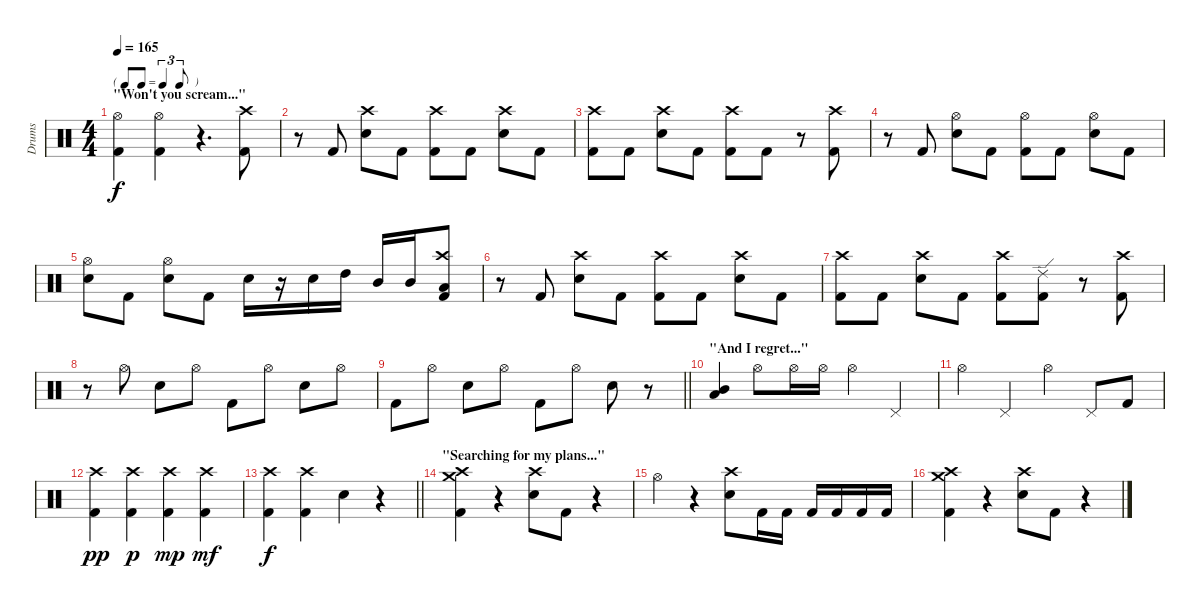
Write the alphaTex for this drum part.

\track ("Drums" "Drums") {instrument percussion}
\staff {score}
\articulation defaults
\ts (4 4)
\tf triplet8th
\section ("" "\"Won't you scream...\"")
\tempo 165
\clef neutral
\ks c
("Hi-Hat (open)" "Kick (hit) 2").4{dy f} ("Hi-Hat (open)" "Kick (hit) 2").4 r.4{d} ("Crash high (hit)" "Kick (hit) 2").8 |
r.8 "Kick (hit) 2".8 ("Crash high (hit)" "Electric Snare (hit)").8 "Kick (hit) 2".8 ("Crash high (hit)" "Kick (hit) 2").8 "Kick (hit) 2".8 ("Crash high (hit)" "Electric Snare (hit)").8 "Kick (hit) 2".8 |
("Crash high (hit)" "Kick (hit) 2").8 "Kick (hit) 2".8 ("Crash high (hit)" "Electric Snare (hit)").8 "Kick (hit) 2".8 ("Crash high (hit)" "Kick (hit) 2").8 "Kick (hit) 2".8 r.8 ("Crash high (hit)" "Kick (hit) 2").8 |
r.8 "Kick (hit) 2".8 ("Hi-Hat (open)" "Electric Snare (hit)").8 "Kick (hit) 2".8 ("Hi-Hat (open)" "Kick (hit) 2").8 "Kick (hit) 2".8 ("Hi-Hat (open)" "Electric Snare (hit)").8 "Kick (hit) 2".8 |
("Hi-Hat (open)" "Electric Snare (hit)").8 "Kick (hit) 2".8 ("Hi-Hat (open)" "Electric Snare (hit)").8 "Kick (hit) 2".8 "Electric Snare (hit)".16 r.16 "Electric Snare (hit)".16 "High Tom (hit)".16 "Mid Tom (hit)".16 "Mid Tom (hit)".16 ("Crash high (hit)" "Low Tom (hit)" "Kick (hit) 2").8 |
r.8 "Kick (hit) 2".8 ("Crash high (hit)" "Electric Snare (hit)").8 "Kick (hit) 2".8 ("Crash high (hit)" "Kick (hit) 2").8 "Kick (hit) 2".8 ("Crash high (hit)" "Electric Snare (hit)").8 "Kick (hit) 2".8 |
("Crash high (hit)" "Kick (hit) 2").8 "Kick (hit) 2".8 ("Crash high (hit)" "Electric Snare (hit)").8 "Kick (hit) 2".8 ("Crash high (hit)" "Kick (hit) 2").8 ("Ride (edge) 2" "Kick (hit) 2").8 r.8 ("Crash high (hit)" "Kick (hit) 2").8 |
r.8 "Hi-Hat (open)".8 "Electric Snare (hit)".8 "Hi-Hat (open)".8 "Kick (hit) 2".8 "Hi-Hat (open)".8 "Electric Snare (hit)".8 "Hi-Hat (open)".8 |
\barLineRight lightlight "Kick (hit) 2".8 "Hi-Hat (open)".8 "Electric Snare (hit)".8 "Hi-Hat (open)".8 "Kick (hit) 2".8 "Hi-Hat (open)".8 "Electric Snare (hit)".8
r.8 |
\section ("" "\"And I regret...\"")
("Mid Tom (hit)" "Low Tom (hit)").4 "Hi-Hat (open)".8 "Hi-Hat (open)".16 "Hi-Hat (open)".16 "Hi-Hat (open)".4 "Pedal Hi-Hat (hit)".4 |
"Hi-Hat (open)".4 "Pedal Hi-Hat (hit)".4 "Hi-Hat (open)".4 "Pedal Hi-Hat (hit)".8 "Kick (hit) 2".8 |
("Crash high (hit)" "Kick (hit) 2").4{dy pp} ("Crash high (hit)" "Kick (hit) 2").4{dy p} ("Crash high (hit)" "Kick (hit) 2").4{dy mp} ("Crash high (hit)" "Kick (hit) 2").4{dy mf} |
\barLineRight lightlight
("Crash high (hit)" "Kick (hit) 2").4{dy f} ("Crash high (hit)" "Kick (hit) 2").4 "Electric Snare (hit)".4 r.4 |
\section ("" "\"Searching for my plans...\"")
("Crash high (hit)" "Crash medium (hit)" "Kick (hit) 2").4 r.4 ("Crash high (hit)" "Electric Snare (hit)").8 "Kick (hit) 2".8 r.4 |
"Hi-Hat (open)".4 r.4 ("Crash high (hit)" "Electric Snare (hit)").8 "Kick (hit) 2".16 "Kick (hit) 2".16 "Kick (hit) 2".16 "Kick (hit) 2".16 "Kick (hit) 2".16 "Kick (hit) 2".16 |
("Crash high (hit)" "Crash medium (hit)" "Kick (hit) 2").4 r.4 ("Crash high (hit)" "Electric Snare (hit)").8 "Kick (hit) 2".8 r.4
